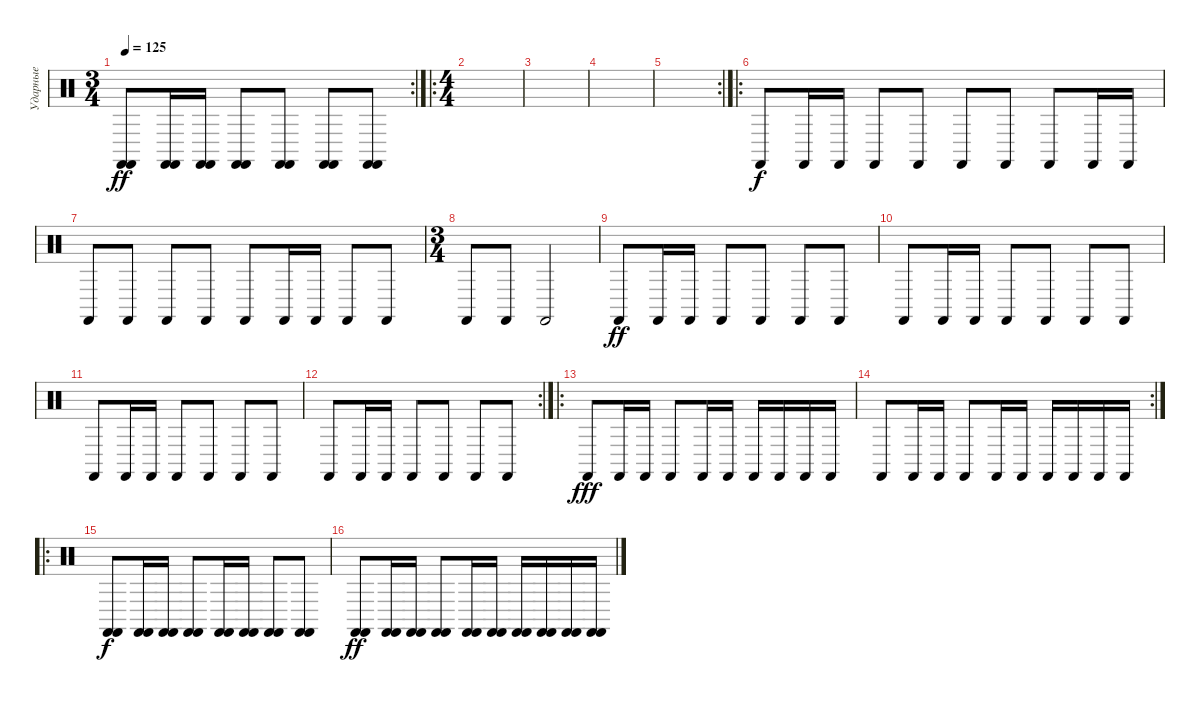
\track ("Ударные" "Ударные") {instrument percussion}
\staff {score}
\articulation defaults
\rc 2
\ts (3 4)
\tempo 125
\clef neutral
\ks c
("Castanets (hit)" "Castanets (hit)").8{dy ff} ("Castanets (hit)" "Castanets (hit)").16 ("Castanets (hit)" "Castanets (hit)").16 ("Castanets (hit)" "Castanets (hit)").8 ("Castanets (hit)" "Castanets (hit)").8 ("Castanets (hit)" "Castanets (hit)").8 ("Castanets (hit)" "Castanets (hit)").8 |
\ro
\ts (4 4)
|
|
|
\rc 2
|
\ro "Castanets (hit)".8{dy f volume 16} "Castanets (hit)".16 "Castanets (hit)".16 "Castanets (hit)".8 "Castanets (hit)".8 "Castanets (hit)".8 "Castanets (hit)".8 "Castanets (hit)".8 "Castanets (hit)".16 "Castanets (hit)".16
|
"Castanets (hit)".8 "Castanets (hit)".8 "Castanets (hit)".8 "Castanets (hit)".8 "Castanets (hit)".8 "Castanets (hit)".16 "Castanets (hit)".16 "Castanets (hit)".8 "Castanets (hit)".8 |
\ts (3 4)
"Castanets (hit)".8 "Castanets (hit)".8 "Castanets (hit)".2 |
"Castanets (hit)".8{dy ff} "Castanets (hit)".16 "Castanets (hit)".16 "Castanets (hit)".8 "Castanets (hit)".8 "Castanets (hit)".8 "Castanets (hit)".8 |
"Castanets (hit)".8 "Castanets (hit)".16 "Castanets (hit)".16 "Castanets (hit)".8 "Castanets (hit)".8 "Castanets (hit)".8 "Castanets (hit)".8 |
"Castanets (hit)".8 "Castanets (hit)".16 "Castanets (hit)".16 "Castanets (hit)".8 "Castanets (hit)".8 "Castanets (hit)".8 "Castanets (hit)".8 |
\rc 2 "Castanets (hit)".8 "Castanets (hit)".16 "Castanets (hit)".16 "Castanets (hit)".8 "Castanets (hit)".8 "Castanets (hit)".8 "Castanets (hit)".8
|
\ro "Castanets (hit)".8{dy fff} "Castanets (hit)".16 "Castanets (hit)".16 "Castanets (hit)".8 "Castanets (hit)".16 "Castanets (hit)".16 "Castanets (hit)".16 "Castanets (hit)".16 "Castanets (hit)".16 "Castanets (hit)".16
|
\rc 2 "Castanets (hit)".8 "Castanets (hit)".16 "Castanets (hit)".16 "Castanets (hit)".8 "Castanets (hit)".16 "Castanets (hit)".16 "Castanets (hit)".16 "Castanets (hit)".16 "Castanets (hit)".16 "Castanets (hit)".16
|
\ro
("Castanets (hit)" "Castanets (hit)").8{dy f} ("Castanets (hit)" "Castanets (hit)").16 ("Castanets (hit)" "Castanets (hit)").16 ("Castanets (hit)" "Castanets (hit)").8 ("Castanets (hit)" "Castanets (hit)").16 ("Castanets (hit)" "Castanets (hit)").16 ("Castanets (hit)" "Castanets (hit)").8 ("Castanets (hit)" "Castanets (hit)").8 |
("Castanets (hit)" "Castanets (hit)").8{dy ff} ("Castanets (hit)" "Castanets (hit)").16 ("Castanets (hit)" "Castanets (hit)").16 ("Castanets (hit)" "Castanets (hit)").8 ("Castanets (hit)" "Castanets (hit)").16 ("Castanets (hit)" "Castanets (hit)").16 ("Castanets (hit)" "Castanets (hit)").16 ("Castanets (hit)" "Castanets (hit)").16 ("Castanets (hit)" "Castanets (hit)").16 ("Castanets (hit)" "Castanets (hit)").16
